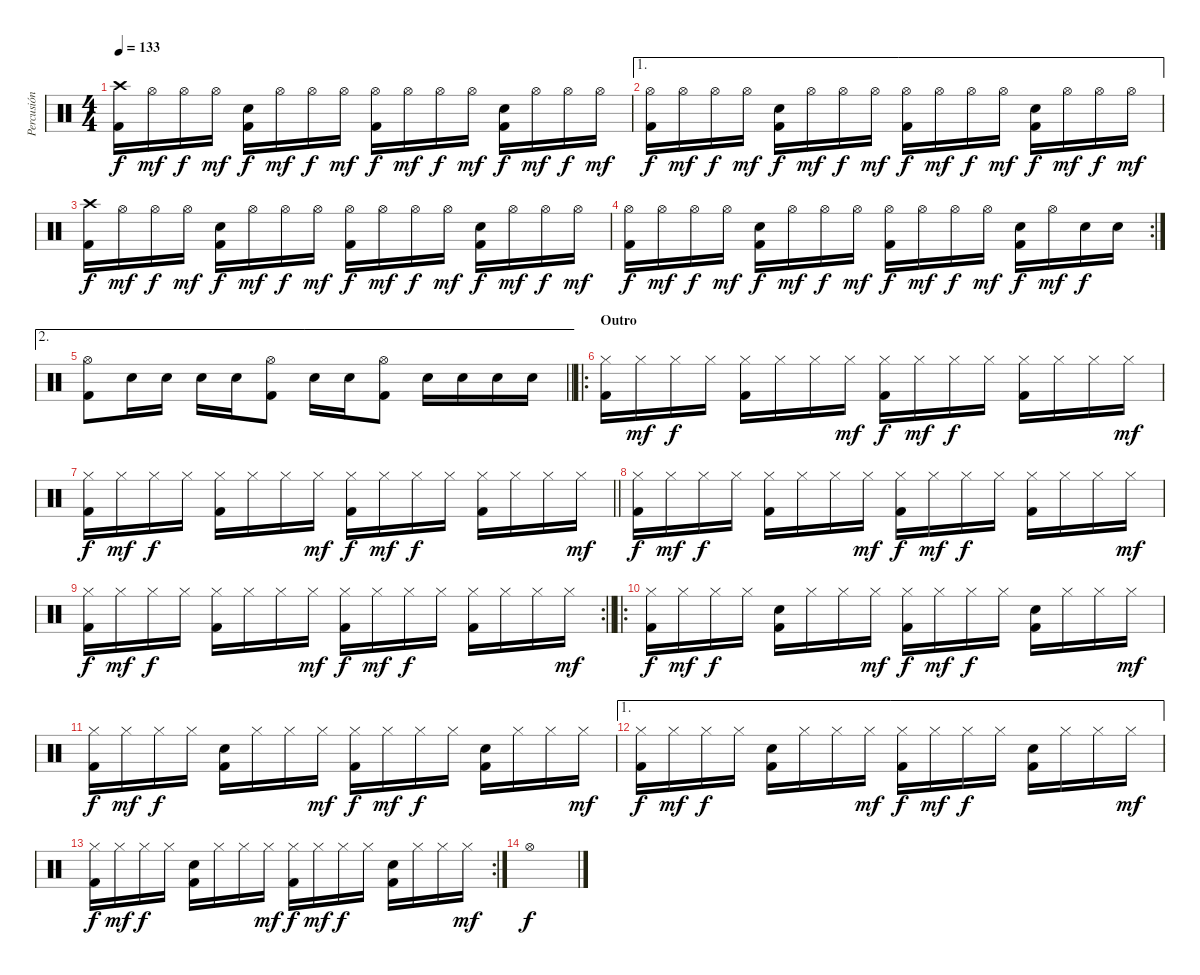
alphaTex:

\track ("Percusión" "Percusión") {instrument percussion}
\staff {score}
\articulation defaults
\ts (4 4)
\tempo 133
\clef neutral
\ks c
("Crash high (hit)" "Kick (hit) 2").16{dy f} "Hi-Hat (open)".16{dy mf} "Hi-Hat (open)".16{dy f} "Hi-Hat (open)".16{dy mf} ("Snare (hit) 2" "Kick (hit) 2").16{dy f} "Hi-Hat (open)".16{dy mf} "Hi-Hat (open)".16{dy f} "Hi-Hat (open)".16{dy mf} ("Hi-Hat (open)" "Kick (hit) 2").16{dy f} "Hi-Hat (open)".16{dy mf} "Hi-Hat (open)".16{dy f} "Hi-Hat (open)".16{dy mf} ("Snare (hit) 2" "Kick (hit) 2").16{dy f} "Hi-Hat (open)".16{dy mf} "Hi-Hat (open)".16{dy f} "Hi-Hat (open)".16{dy mf} |
\ae 1
("Hi-Hat (open)" "Kick (hit) 2").16{dy f} "Hi-Hat (open)".16{dy mf} "Hi-Hat (open)".16{dy f} "Hi-Hat (open)".16{dy mf} ("Snare (hit) 2" "Kick (hit) 2").16{dy f} "Hi-Hat (open)".16{dy mf} "Hi-Hat (open)".16{dy f} "Hi-Hat (open)".16{dy mf} ("Hi-Hat (open)" "Kick (hit) 2").16{dy f} "Hi-Hat (open)".16{dy mf} "Hi-Hat (open)".16{dy f} "Hi-Hat (open)".16{dy mf} ("Snare (hit) 2" "Kick (hit) 2").16{dy f} "Hi-Hat (open)".16{dy mf} "Hi-Hat (open)".16{dy f} "Hi-Hat (open)".16{dy mf} |
("Crash high (hit)" "Kick (hit) 2").16{dy f} "Hi-Hat (open)".16{dy mf} "Hi-Hat (open)".16{dy f} "Hi-Hat (open)".16{dy mf} ("Snare (hit) 2" "Kick (hit) 2").16{dy f} "Hi-Hat (open)".16{dy mf} "Hi-Hat (open)".16{dy f} "Hi-Hat (open)".16{dy mf} ("Hi-Hat (open)" "Kick (hit) 2").16{dy f} "Hi-Hat (open)".16{dy mf} "Hi-Hat (open)".16{dy f} "Hi-Hat (open)".16{dy mf} ("Snare (hit) 2" "Kick (hit) 2").16{dy f} "Hi-Hat (open)".16{dy mf} "Hi-Hat (open)".16{dy f} "Hi-Hat (open)".16{dy mf} |
\rc 2
("Hi-Hat (open)" "Kick (hit) 2").16{dy f} "Hi-Hat (open)".16{dy mf} "Hi-Hat (open)".16{dy f} "Hi-Hat (open)".16{dy mf} ("Snare (hit) 2" "Kick (hit) 2").16{dy f} "Hi-Hat (open)".16{dy mf} "Hi-Hat (open)".16{dy f} "Hi-Hat (open)".16{dy mf} ("Hi-Hat (open)" "Kick (hit) 2").16{dy f} "Hi-Hat (open)".16{dy mf} "Hi-Hat (open)".16{dy f} "Hi-Hat (open)".16{dy mf} ("Snare (hit) 2" "Kick (hit) 2").16{dy f} "Hi-Hat (open)".16{dy mf} "Snare (hit) 2".16{dy f} "Snare (hit) 2".16 |
\ae 2
\barLineRight lightlight
("Hi-Hat (open)" "Kick (hit) 2").8 "Snare (hit) 2".16 "Snare (hit) 2".16 "Snare (hit) 2".16 "Snare (hit) 2".16 ("Hi-Hat (open)" "Kick (hit) 2").8 "Snare (hit) 2".16 "Snare (hit) 2".16 ("Hi-Hat (open)" "Kick (hit) 2").8 "Snare (hit) 2".16 "Snare (hit) 2".16 "Snare (hit) 2".16 "Snare (hit) 2".16 |
\ro
\section ("" "Outro")
("Hi-Hat (closed)" "Kick (hit) 2").16 "Hi-Hat (closed)".16{dy mf} "Hi-Hat (closed)".16{dy f} "Hi-Hat (closed)".16 ("Hi-Hat (closed)" "Kick (hit) 2").16 "Hi-Hat (closed)".16 "Hi-Hat (closed)".16 "Hi-Hat (closed)".16{dy mf} ("Hi-Hat (closed)" "Kick (hit) 2").16{dy f} "Hi-Hat (closed)".16{dy mf} "Hi-Hat (closed)".16{dy f} "Hi-Hat (closed)".16 ("Hi-Hat (closed)" "Kick (hit) 2").16 "Hi-Hat (closed)".16 "Hi-Hat (closed)".16 "Hi-Hat (closed)".16{dy mf} |
\barLineRight lightlight
("Hi-Hat (closed)" "Kick (hit) 2").16{dy f} "Hi-Hat (closed)".16{dy mf} "Hi-Hat (closed)".16{dy f} "Hi-Hat (closed)".16 ("Hi-Hat (closed)" "Kick (hit) 2").16 "Hi-Hat (closed)".16 "Hi-Hat (closed)".16 "Hi-Hat (closed)".16{dy mf} ("Hi-Hat (closed)" "Kick (hit) 2").16{dy f} "Hi-Hat (closed)".16{dy mf} "Hi-Hat (closed)".16{dy f} "Hi-Hat (closed)".16 ("Hi-Hat (closed)" "Kick (hit) 2").16 "Hi-Hat (closed)".16 "Hi-Hat (closed)".16 "Hi-Hat (closed)".16{dy mf} |
("Hi-Hat (closed)" "Kick (hit) 2").16{dy f} "Hi-Hat (closed)".16{dy mf} "Hi-Hat (closed)".16{dy f} "Hi-Hat (closed)".16 ("Hi-Hat (closed)" "Kick (hit) 2").16 "Hi-Hat (closed)".16 "Hi-Hat (closed)".16 "Hi-Hat (closed)".16{dy mf} ("Hi-Hat (closed)" "Kick (hit) 2").16{dy f} "Hi-Hat (closed)".16{dy mf} "Hi-Hat (closed)".16{dy f} "Hi-Hat (closed)".16 ("Hi-Hat (closed)" "Kick (hit) 2").16 "Hi-Hat (closed)".16 "Hi-Hat (closed)".16 "Hi-Hat (closed)".16{dy mf} |
\rc 2
\barLineRight lightlight
("Hi-Hat (closed)" "Kick (hit) 2").16{dy f} "Hi-Hat (closed)".16{dy mf} "Hi-Hat (closed)".16{dy f} "Hi-Hat (closed)".16 ("Hi-Hat (closed)" "Kick (hit) 2").16 "Hi-Hat (closed)".16 "Hi-Hat (closed)".16 "Hi-Hat (closed)".16{dy mf} ("Hi-Hat (closed)" "Kick (hit) 2").16{dy f} "Hi-Hat (closed)".16{dy mf} "Hi-Hat (closed)".16{dy f} "Hi-Hat (closed)".16 ("Hi-Hat (closed)" "Kick (hit) 2").16 "Hi-Hat (closed)".16 "Hi-Hat (closed)".16 "Hi-Hat (closed)".16{dy mf} |
\ro
("Hi-Hat (closed)" "Kick (hit) 2").16{dy f} "Hi-Hat (closed)".16{dy mf} "Hi-Hat (closed)".16{dy f} "Hi-Hat (closed)".16 ("Snare (hit) 2" "Kick (hit) 2").16 "Hi-Hat (closed)".16 "Hi-Hat (closed)".16 "Hi-Hat (closed)".16{dy mf} ("Hi-Hat (closed)" "Kick (hit) 2").16{dy f} "Hi-Hat (closed)".16{dy mf} "Hi-Hat (closed)".16{dy f} "Hi-Hat (closed)".16 ("Snare (hit) 2" "Kick (hit) 2").16 "Hi-Hat (closed)".16 "Hi-Hat (closed)".16 "Hi-Hat (closed)".16{dy mf} |
("Hi-Hat (closed)" "Kick (hit) 2").16{dy f} "Hi-Hat (closed)".16{dy mf} "Hi-Hat (closed)".16{dy f} "Hi-Hat (closed)".16 ("Snare (hit) 2" "Kick (hit) 2").16 "Hi-Hat (closed)".16 "Hi-Hat (closed)".16 "Hi-Hat (closed)".16{dy mf} ("Hi-Hat (closed)" "Kick (hit) 2").16{dy f} "Hi-Hat (closed)".16{dy mf} "Hi-Hat (closed)".16{dy f} "Hi-Hat (closed)".16 ("Snare (hit) 2" "Kick (hit) 2").16 "Hi-Hat (closed)".16 "Hi-Hat (closed)".16 "Hi-Hat (closed)".16{dy mf} |
\ae 1
("Hi-Hat (closed)" "Kick (hit) 2").16{dy f} "Hi-Hat (closed)".16{dy mf} "Hi-Hat (closed)".16{dy f} "Hi-Hat (closed)".16 ("Snare (hit) 2" "Kick (hit) 2").16 "Hi-Hat (closed)".16 "Hi-Hat (closed)".16 "Hi-Hat (closed)".16{dy mf} ("Hi-Hat (closed)" "Kick (hit) 2").16{dy f} "Hi-Hat (closed)".16{dy mf} "Hi-Hat (closed)".16{dy f} "Hi-Hat (closed)".16 ("Snare (hit) 2" "Kick (hit) 2").16 "Hi-Hat (closed)".16 "Hi-Hat (closed)".16 "Hi-Hat (closed)".16{dy mf} |
\rc 2
("Hi-Hat (closed)" "Kick (hit) 2").16{dy f} "Hi-Hat (closed)".16{dy mf} "Hi-Hat (closed)".16{dy f} "Hi-Hat (closed)".16 ("Snare (hit) 2" "Kick (hit) 2").16 "Hi-Hat (closed)".16 "Hi-Hat (closed)".16 "Hi-Hat (closed)".16{dy mf} ("Hi-Hat (closed)" "Kick (hit) 2").16{dy f} "Hi-Hat (closed)".16{dy mf} "Hi-Hat (closed)".16{dy f} "Hi-Hat (closed)".16 ("Snare (hit) 2" "Kick (hit) 2").16 "Hi-Hat (closed)".16 "Hi-Hat (closed)".16 "Hi-Hat (closed)".16{dy mf} |
"Hi-Hat (open)".1{dy f}
